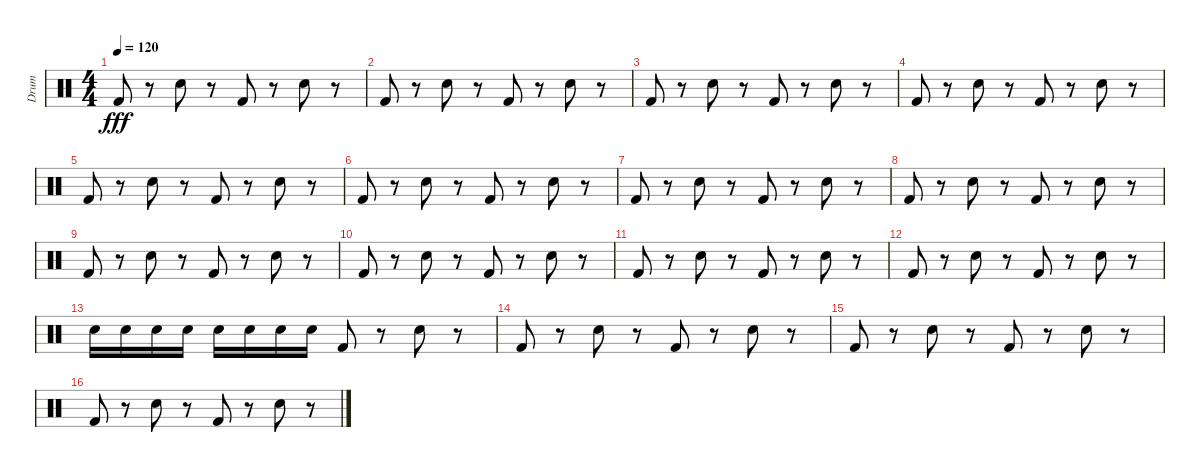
\track ("Drum" "Drum") {instrument percussion}
\staff {score}
\articulation defaults
\ts (4 4)
\tempo 120
\clef neutral
\ks c "Kick (hit) 2".8{dy fff}
r.8 "Snare (hit) 2".8 r.8 "Kick (hit) 2".8 r.8 "Snare (hit) 2".8 r.8 |
"Kick (hit) 2".8 r.8 "Snare (hit) 2".8 r.8 "Kick (hit) 2".8 r.8 "Snare (hit) 2".8 r.8 |
"Kick (hit) 2".8 r.8 "Snare (hit) 2".8 r.8 "Kick (hit) 2".8 r.8 "Snare (hit) 2".8 r.8 |
"Kick (hit) 2".8 r.8 "Snare (hit) 2".8 r.8 "Kick (hit) 2".8 r.8 "Snare (hit) 2".8 r.8 |
"Kick (hit) 2".8 r.8 "Snare (hit) 2".8 r.8 "Kick (hit) 2".8 r.8 "Snare (hit) 2".8 r.8 |
"Kick (hit) 2".8 r.8 "Snare (hit) 2".8 r.8 "Kick (hit) 2".8 r.8 "Snare (hit) 2".8 r.8 |
"Kick (hit) 2".8 r.8 "Snare (hit) 2".8 r.8 "Kick (hit) 2".8 r.8 "Snare (hit) 2".8 r.8 |
"Kick (hit) 2".8 r.8 "Snare (hit) 2".8 r.8 "Kick (hit) 2".8 r.8 "Snare (hit) 2".8 r.8 |
"Kick (hit) 2".8 r.8 "Snare (hit) 2".8 r.8 "Kick (hit) 2".8 r.8 "Snare (hit) 2".8 r.8 |
"Kick (hit) 2".8 r.8 "Snare (hit) 2".8 r.8 "Kick (hit) 2".8 r.8 "Snare (hit) 2".8 r.8 |
"Kick (hit) 2".8 r.8 "Snare (hit) 2".8 r.8 "Kick (hit) 2".8 r.8 "Snare (hit) 2".8 r.8 |
"Kick (hit) 2".8 r.8 "Snare (hit) 2".8 r.8 "Kick (hit) 2".8 r.8 "Snare (hit) 2".8 r.8 |
"Snare (hit) 2".16 "Snare (hit) 2".16 "Snare (hit) 2".16 "Snare (hit) 2".16 "Snare (hit) 2".16 "Snare (hit) 2".16 "Snare (hit) 2".16 "Snare (hit) 2".16 "Kick (hit) 2".8 r.8 "Snare (hit) 2".8 r.8 |
"Kick (hit) 2".8 r.8 "Snare (hit) 2".8 r.8 "Kick (hit) 2".8 r.8 "Snare (hit) 2".8 r.8 |
"Kick (hit) 2".8 r.8 "Snare (hit) 2".8 r.8 "Kick (hit) 2".8 r.8 "Snare (hit) 2".8 r.8 |
"Kick (hit) 2".8 r.8 "Snare (hit) 2".8 r.8 "Kick (hit) 2".8 r.8 "Snare (hit) 2".8 r.8
